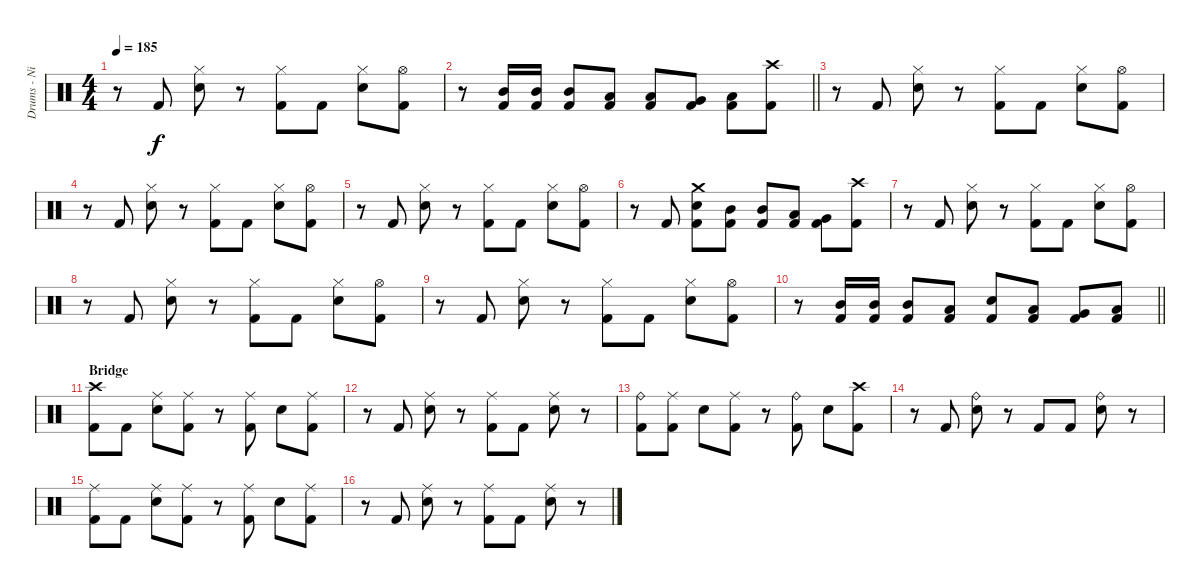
\track ("Drums - Nicko" "Drums - Ni") {instrument percussion}
\staff {score}
\articulation defaults
\ts (4 4)
\tempo 185
\clef neutral
\ks c
r.8{dy f} "Kick (hit) 2".8 ("Hi-Hat (closed)" "Snare (hit) 2").8 r.8 ("Hi-Hat (closed)" "Kick (hit) 2").8 "Kick (hit) 2".8 ("Hi-Hat (closed)" "Snare (hit) 2").8 ("Hi-Hat (open)" "Kick (hit) 2").8 |
\barLineRight lightlight
r.8 ("Mid Tom (hit)" "Kick (hit) 2").16 ("Mid Tom (hit)" "Kick (hit) 2").16 ("Mid Tom (hit)" "Kick (hit) 2").8 ("Low Tom (hit)" "Kick (hit) 2").8 ("Low Tom (hit)" "Kick (hit) 2").8 ("Very Low Tom (hit)" "Kick (hit) 2").8 ("Low Floor Tom (hit)" "Kick (hit) 2").8 ("Crash high (hit)" "Kick (hit) 2").8 |
\section ("" "")
r.8 "Kick (hit) 2".8 ("Hi-Hat (closed)" "Snare (hit) 2").8 r.8 ("Hi-Hat (closed)" "Kick (hit) 2").8 "Kick (hit) 2".8 ("Hi-Hat (closed)" "Snare (hit) 2").8 ("Hi-Hat (open)" "Kick (hit) 2").8 |
r.8 "Kick (hit) 2".8 ("Hi-Hat (closed)" "Snare (hit) 2").8 r.8 ("Hi-Hat (closed)" "Kick (hit) 2").8 "Kick (hit) 2".8 ("Hi-Hat (closed)" "Snare (hit) 2").8 ("Hi-Hat (open)" "Kick (hit) 2").8 |
r.8 "Kick (hit) 2".8 ("Hi-Hat (closed)" "Snare (hit) 2").8 r.8 ("Hi-Hat (closed)" "Kick (hit) 2").8 "Kick (hit) 2".8 ("Hi-Hat (closed)" "Snare (hit) 2").8 ("Hi-Hat (open)" "Kick (hit) 2").8 |
r.8 "Kick (hit) 2".8 ("Crash medium (hit)" "Snare (hit) 2" "Kick (hit) 2").8 ("Mid Tom (hit)" "Kick (hit) 2").8 ("Mid Tom (hit)" "Kick (hit) 2").8 ("Low Tom (hit)" "Kick (hit) 2").8 ("Very Low Tom (hit)" "Kick (hit) 2").8 ("Crash high (hit)" "Kick (hit) 2").8 |
r.8 "Kick (hit) 2".8 ("Hi-Hat (closed)" "Snare (hit) 2").8 r.8 ("Hi-Hat (closed)" "Kick (hit) 2").8 "Kick (hit) 2".8 ("Hi-Hat (closed)" "Snare (hit) 2").8 ("Hi-Hat (open)" "Kick (hit) 2").8 |
r.8 "Kick (hit) 2".8 ("Hi-Hat (closed)" "Snare (hit) 2").8 r.8 ("Hi-Hat (closed)" "Kick (hit) 2").8 "Kick (hit) 2".8 ("Hi-Hat (closed)" "Snare (hit) 2").8 ("Hi-Hat (open)" "Kick (hit) 2").8 |
r.8 "Kick (hit) 2".8 ("Hi-Hat (closed)" "Snare (hit) 2").8 r.8 ("Hi-Hat (closed)" "Kick (hit) 2").8 "Kick (hit) 2".8 ("Hi-Hat (closed)" "Snare (hit) 2").8 ("Hi-Hat (open)" "Kick (hit) 2").8 |
\barLineRight lightlight
r.8 ("Mid Tom (hit)" "Kick (hit) 2").16 ("Mid Tom (hit)" "Kick (hit) 2").16 ("Mid Tom (hit)" "Kick (hit) 2").8 ("Low Tom (hit)" "Kick (hit) 2").8 ("Snare (hit) 2" "Kick (hit) 2").8 ("Low Tom (hit)" "Kick (hit) 2").8 ("Very Low Tom (hit)" "Kick (hit) 2").8 ("Low Floor Tom (hit)" "Kick (hit) 2").8 |
\section ("" "Bridge")
("Crash high (hit)" "Kick (hit) 2").8 "Kick (hit) 2".8 ("Ride (middle)" "Snare (hit) 2").8 ("Ride (middle)" "Kick (hit) 2").8 r.8 ("Ride (middle)" "Kick (hit) 2").8 "Snare (hit) 2".8 ("Ride (middle)" "Kick (hit) 2").8 |
r.8 "Kick (hit) 2".8 ("Ride (middle)" "Snare (hit) 2").8 r.8 ("Ride (middle)" "Kick (hit) 2").8 "Kick (hit) 2".8 ("Ride (middle)" "Snare (hit) 2").8 r.8 |
("Ride (bell)" "Kick (hit) 2").8 ("Ride (middle)" "Kick (hit) 2").8 "Snare (hit) 2".8 ("Ride (middle)" "Kick (hit) 2").8 r.8 ("Ride (bell)" "Kick (hit) 2").8 "Snare (hit) 2".8 ("Crash high (hit)" "Kick (hit) 2").8 |
r.8 "Kick (hit) 2".8 ("Ride (bell)" "Snare (hit) 2").8 r.8 "Kick (hit) 2".8 "Kick (hit) 2".8 ("Ride (bell)" "Snare (hit) 2").8 r.8 |
("Ride (middle)" "Kick (hit) 2").8 "Kick (hit) 2".8 ("Ride (middle)" "Snare (hit) 2").8 ("Ride (middle)" "Kick (hit) 2").8 r.8 ("Ride (middle)" "Kick (hit) 2").8 "Snare (hit) 2".8 ("Ride (middle)" "Kick (hit) 2").8 |
r.8 "Kick (hit) 2".8 ("Ride (middle)" "Snare (hit) 2").8 r.8 ("Ride (middle)" "Kick (hit) 2").8 "Kick (hit) 2".8 ("Ride (middle)" "Snare (hit) 2").8 r.8
